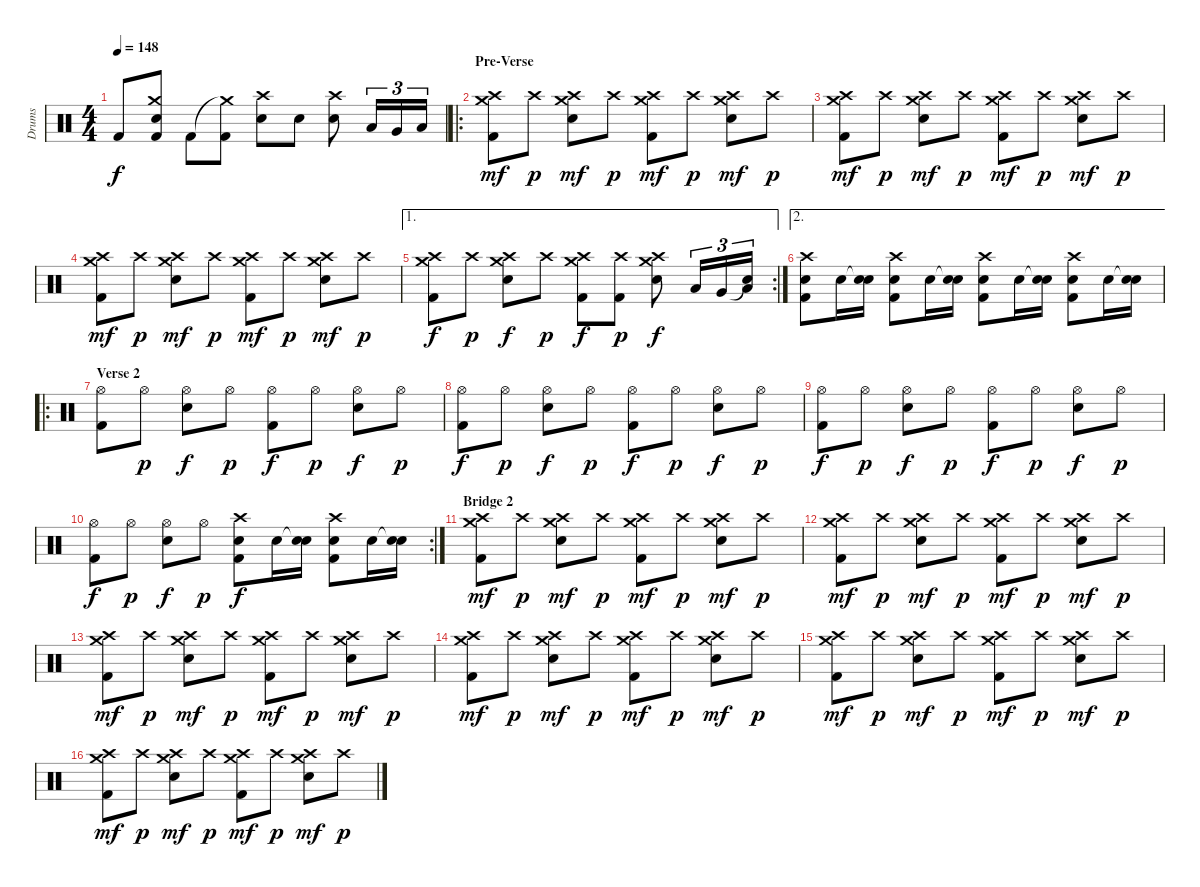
\track ("Drums" "Drums") {instrument percussion}
\staff {score}
\articulation defaults
\ts (4 4)
\tempo 148
\clef neutral
\ks c "Kick (hit) 2".8{dy f}
("Crash medium (hit)" "Snare (hit) 2" "Kick (hit) 2").8 "Kick (hit) 2".8 ("Crash medium (hit)"{t} "Kick (hit) 2").8 ("Crash high (hit)" "Snare (hit) 2").8 "Snare (hit) 2".8 ("Crash high (hit)" "Snare (hit) 2").8 "Low Tom (hit)".16{tu (3 2)} "Very Low Tom (hit)".16{tu (3 2)} "Low Floor Tom (hit)".16{tu (3 2)} |
\ro
\section ("" "Pre-Verse")
("Crash high (hit)" "Crash medium (hit)" "Kick (hit) 2").8{dy mf} "Crash high (hit)".8{dy p} ("Crash high (hit)" "Crash medium (hit)" "Snare (hit) 2").8{dy mf} "Crash high (hit)".8{dy p} ("Crash high (hit)" "Crash medium (hit)" "Kick (hit) 2").8{dy mf} "Crash high (hit)".8{dy p} ("Crash high (hit)" "Crash medium (hit)" "Snare (hit) 2").8{dy mf} "Crash high (hit)".8{dy p} |
("Crash high (hit)" "Crash medium (hit)" "Kick (hit) 2").8{dy mf} "Crash high (hit)".8{dy p} ("Crash high (hit)" "Crash medium (hit)" "Snare (hit) 2").8{dy mf} "Crash high (hit)".8{dy p} ("Crash high (hit)" "Crash medium (hit)" "Kick (hit) 2").8{dy mf} "Crash high (hit)".8{dy p} ("Crash high (hit)" "Crash medium (hit)" "Snare (hit) 2").8{dy mf} "Crash high (hit)".8{dy p} |
("Crash high (hit)" "Crash medium (hit)" "Kick (hit) 2").8{dy mf} "Crash high (hit)".8{dy p} ("Crash high (hit)" "Crash medium (hit)" "Snare (hit) 2").8{dy mf} "Crash high (hit)".8{dy p} ("Crash high (hit)" "Crash medium (hit)" "Kick (hit) 2").8{dy mf} "Crash high (hit)".8{dy p} ("Crash high (hit)" "Crash medium (hit)" "Snare (hit) 2").8{dy mf} "Crash high (hit)".8{dy p} |
\ae 1
\rc 2
("Crash high (hit)" "Crash medium (hit)" "Kick (hit) 2").8{dy f} "Crash high (hit)".8{dy p} ("Crash high (hit)" "Crash medium (hit)" "Snare (hit) 2").8{dy f} "Crash high (hit)".8{dy p} ("Crash high (hit)" "Crash medium (hit)" "Kick (hit) 2").8{dy f} ("Crash high (hit)" "Kick (hit) 2").8{dy p} ("Crash high (hit)" "Crash medium (hit)" "Snare (hit) 2").8{dy f} "Low Tom (hit)".16{tu (3 2)} "Very Low Tom (hit)".16{tu (3 2)} ("Snare (hit)"{t} "Low Floor Tom (hit)").16{tu (3 2)} |
\ae 2
("Crash high (hit)" "Snare (hit) 2" "Kick (hit) 2").8 "Snare (hit) 2".16 ("Snare (hit)"{t} "Snare (hit) 2").16 ("Crash high (hit)" "Snare (hit) 2" "Kick (hit) 2").8 "Snare (hit) 2".16 ("Snare (hit)"{t} "Snare (hit) 2").16 ("Crash high (hit)" "Snare (hit) 2" "Kick (hit) 2").8 "Snare (hit) 2".16 ("Snare (hit)"{t} "Snare (hit) 2").16 ("Crash high (hit)" "Snare (hit) 2" "Kick (hit) 2").8 "Snare (hit) 2".16 ("Snare (hit)"{t} "Snare (hit) 2").16 |
\ro
\section ("" "Verse 2")
("Hi-Hat (open)" "Kick (hit) 2").8 "Hi-Hat (open)".8{dy p} ("Hi-Hat (open)" "Snare (hit) 2").8{dy f} "Hi-Hat (open)".8{dy p} ("Hi-Hat (open)" "Kick (hit) 2").8{dy f} "Hi-Hat (open)".8{dy p} ("Hi-Hat (open)" "Snare (hit) 2").8{dy f} "Hi-Hat (open)".8{dy p} |
("Hi-Hat (open)" "Kick (hit) 2").8{dy f} "Hi-Hat (open)".8{dy p} ("Hi-Hat (open)" "Snare (hit) 2").8{dy f} "Hi-Hat (open)".8{dy p} ("Hi-Hat (open)" "Kick (hit) 2").8{dy f} "Hi-Hat (open)".8{dy p} ("Hi-Hat (open)" "Snare (hit) 2").8{dy f} "Hi-Hat (open)".8{dy p} |
("Hi-Hat (open)" "Kick (hit) 2").8{dy f} "Hi-Hat (open)".8{dy p} ("Hi-Hat (open)" "Snare (hit) 2").8{dy f} "Hi-Hat (open)".8{dy p} ("Hi-Hat (open)" "Kick (hit) 2").8{dy f} "Hi-Hat (open)".8{dy p} ("Hi-Hat (open)" "Snare (hit) 2").8{dy f} "Hi-Hat (open)".8{dy p} |
\rc 2
("Hi-Hat (open)" "Kick (hit) 2").8{dy f} "Hi-Hat (open)".8{dy p} ("Hi-Hat (open)" "Snare (hit) 2").8{dy f} "Hi-Hat (open)".8{dy p} ("Crash high (hit)" "Snare (hit) 2" "Kick (hit) 2").8{dy f} "Snare (hit) 2".16 ("Snare (hit)"{t} "Snare (hit) 2").16 ("Crash high (hit)" "Snare (hit) 2" "Kick (hit) 2").8 "Snare (hit) 2".16 ("Snare (hit)"{t} "Snare (hit) 2").16 |
\section ("" "Bridge 2")
("Crash high (hit)" "Crash medium (hit)" "Kick (hit) 2").8{dy mf} "Crash high (hit)".8{dy p} ("Crash high (hit)" "Crash medium (hit)" "Snare (hit) 2").8{dy mf} "Crash high (hit)".8{dy p} ("Crash high (hit)" "Crash medium (hit)" "Kick (hit) 2").8{dy mf} "Crash high (hit)".8{dy p} ("Crash high (hit)" "Crash medium (hit)" "Snare (hit) 2").8{dy mf} "Crash high (hit)".8{dy p} |
("Crash high (hit)" "Crash medium (hit)" "Kick (hit) 2").8{dy mf} "Crash high (hit)".8{dy p} ("Crash high (hit)" "Crash medium (hit)" "Snare (hit) 2").8{dy mf} "Crash high (hit)".8{dy p} ("Crash high (hit)" "Crash medium (hit)" "Kick (hit) 2").8{dy mf} "Crash high (hit)".8{dy p} ("Crash high (hit)" "Crash medium (hit)" "Snare (hit) 2").8{dy mf} "Crash high (hit)".8{dy p} |
("Crash high (hit)" "Crash medium (hit)" "Kick (hit) 2").8{dy mf} "Crash high (hit)".8{dy p} ("Crash high (hit)" "Crash medium (hit)" "Snare (hit) 2").8{dy mf} "Crash high (hit)".8{dy p} ("Crash high (hit)" "Crash medium (hit)" "Kick (hit) 2").8{dy mf} "Crash high (hit)".8{dy p} ("Crash high (hit)" "Crash medium (hit)" "Snare (hit) 2").8{dy mf} "Crash high (hit)".8{dy p} |
("Crash high (hit)" "Crash medium (hit)" "Kick (hit) 2").8{dy mf} "Crash high (hit)".8{dy p} ("Crash high (hit)" "Crash medium (hit)" "Snare (hit) 2").8{dy mf} "Crash high (hit)".8{dy p} ("Crash high (hit)" "Crash medium (hit)" "Kick (hit) 2").8{dy mf} "Crash high (hit)".8{dy p} ("Crash high (hit)" "Crash medium (hit)" "Snare (hit) 2").8{dy mf} "Crash high (hit)".8{dy p} |
("Crash high (hit)" "Crash medium (hit)" "Kick (hit) 2").8{dy mf} "Crash high (hit)".8{dy p} ("Crash high (hit)" "Crash medium (hit)" "Snare (hit) 2").8{dy mf} "Crash high (hit)".8{dy p} ("Crash high (hit)" "Crash medium (hit)" "Kick (hit) 2").8{dy mf} "Crash high (hit)".8{dy p} ("Crash high (hit)" "Crash medium (hit)" "Snare (hit) 2").8{dy mf} "Crash high (hit)".8{dy p} |
("Crash high (hit)" "Crash medium (hit)" "Kick (hit) 2").8{dy mf} "Crash high (hit)".8{dy p} ("Crash high (hit)" "Crash medium (hit)" "Snare (hit) 2").8{dy mf} "Crash high (hit)".8{dy p} ("Crash high (hit)" "Crash medium (hit)" "Kick (hit) 2").8{dy mf} "Crash high (hit)".8{dy p} ("Crash high (hit)" "Crash medium (hit)" "Snare (hit) 2").8{dy mf} "Crash high (hit)".8{dy p}
